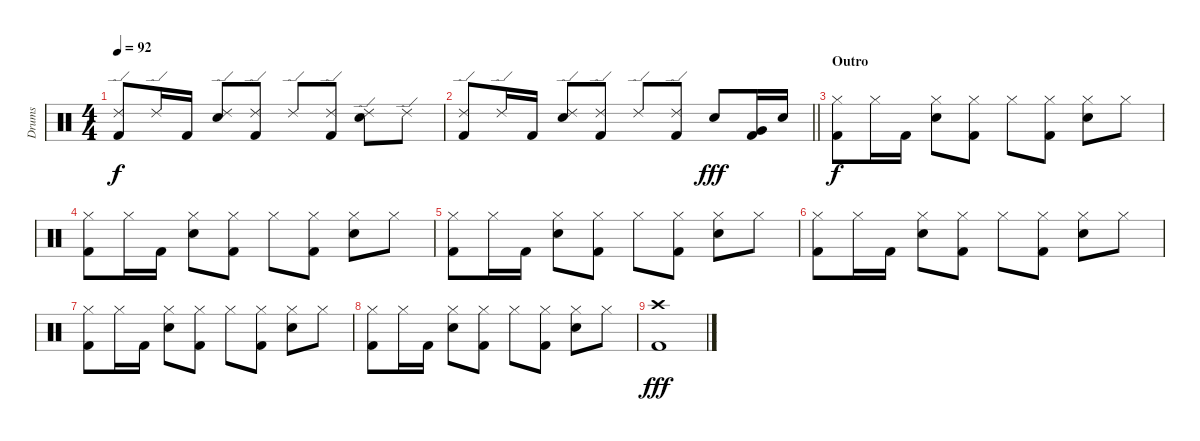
\track ("Drums" "Drums") {instrument percussion}
\staff {score}
\articulation defaults
\ts (4 4)
\tempo 92
\clef neutral
\ks c
("Ride (edge) 2" "Kick (hit) 2").8{dy f} "Ride (edge) 2".16 "Kick (hit) 2".16 ("Ride (edge) 2" "Electric Snare (hit)").8 ("Ride (edge) 2" "Kick (hit) 2").8 "Ride (edge) 2".8 ("Ride (edge) 2" "Kick (hit) 2").8 ("Ride (edge) 2" "Electric Snare (hit)").8 "Ride (edge) 2".8 |
\barLineRight lightlight
("Ride (edge) 2" "Kick (hit) 2").8 "Ride (edge) 2".16 "Kick (hit) 2".16 ("Ride (edge) 2" "Electric Snare (hit)").8 ("Ride (edge) 2" "Kick (hit) 2").8 "Ride (edge) 2".8 ("Ride (edge) 2" "Kick (hit) 2").8 "Electric Snare (hit)".8{dy fff} ("Very Low Tom (hit)" "Kick (hit) 2").16 "Electric Snare (hit)".16 |
\section ("" "Outro")
("Hi-Hat (closed)" "Kick (hit) 2").8{dy f} "Hi-Hat (closed)".16 "Kick (hit) 2".16 ("Hi-Hat (closed)" "Electric Snare (hit)").8 ("Hi-Hat (closed)" "Kick (hit) 2").8 "Hi-Hat (closed)".8 ("Hi-Hat (closed)" "Kick (hit) 2").8 ("Hi-Hat (closed)" "Electric Snare (hit)").8 "Hi-Hat (closed)".8 |
("Hi-Hat (closed)" "Kick (hit) 2").8 "Hi-Hat (closed)".16 "Kick (hit) 2".16 ("Hi-Hat (closed)" "Electric Snare (hit)").8 ("Hi-Hat (closed)" "Kick (hit) 2").8 "Hi-Hat (closed)".8 ("Hi-Hat (closed)" "Kick (hit) 2").8 ("Hi-Hat (closed)" "Electric Snare (hit)").8 "Hi-Hat (closed)".8 |
("Hi-Hat (closed)" "Kick (hit) 2").8 "Hi-Hat (closed)".16 "Kick (hit) 2".16 ("Hi-Hat (closed)" "Electric Snare (hit)").8 ("Hi-Hat (closed)" "Kick (hit) 2").8 "Hi-Hat (closed)".8 ("Hi-Hat (closed)" "Kick (hit) 2").8 ("Hi-Hat (closed)" "Electric Snare (hit)").8 "Hi-Hat (closed)".8 |
("Hi-Hat (closed)" "Kick (hit) 2").8 "Hi-Hat (closed)".16 "Kick (hit) 2".16 ("Hi-Hat (closed)" "Electric Snare (hit)").8 ("Hi-Hat (closed)" "Kick (hit) 2").8 "Hi-Hat (closed)".8 ("Hi-Hat (closed)" "Kick (hit) 2").8 ("Hi-Hat (closed)" "Electric Snare (hit)").8 "Hi-Hat (closed)".8 |
("Hi-Hat (closed)" "Kick (hit) 2").8 "Hi-Hat (closed)".16 "Kick (hit) 2".16 ("Hi-Hat (closed)" "Electric Snare (hit)").8 ("Hi-Hat (closed)" "Kick (hit) 2").8 "Hi-Hat (closed)".8 ("Hi-Hat (closed)" "Kick (hit) 2").8 ("Hi-Hat (closed)" "Electric Snare (hit)").8 "Hi-Hat (closed)".8 |
("Hi-Hat (closed)" "Kick (hit) 2").8 "Hi-Hat (closed)".16 "Kick (hit) 2".16 ("Hi-Hat (closed)" "Electric Snare (hit)").8 ("Hi-Hat (closed)" "Kick (hit) 2").8 "Hi-Hat (closed)".8 ("Hi-Hat (closed)" "Kick (hit) 2").8 ("Hi-Hat (closed)" "Electric Snare (hit)").8 "Hi-Hat (closed)".8 |
("Crash high (hit)" "Kick (hit) 2").1{dy fff}
